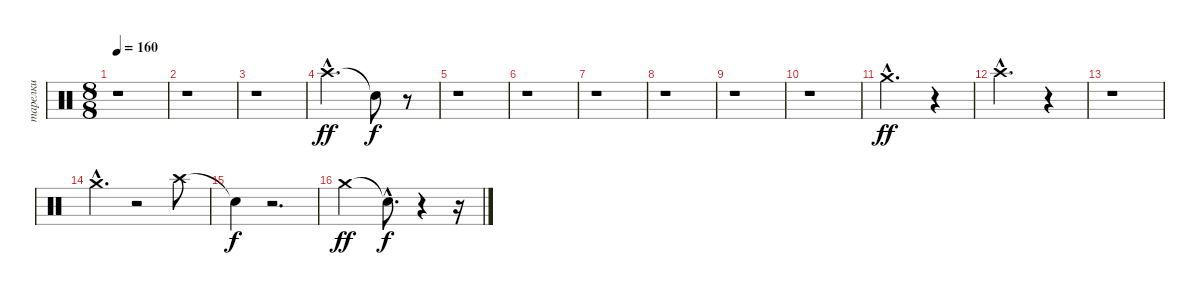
\track ("тарелки" "тарелки") {instrument percussion}
\staff {score}
\articulation defaults
\ts (8 8)
\tempo 160
\clef neutral
\ks c
r.1{dy f} |
r.1 |
r.1 |
"Crash high (hit)"{hac}.2{d dy ff} "Snare (hit)"{t}.8{dy f} r.8 |
r.1 |
r.1 |
r.1 |
r.1 |
r.1 |
r.1 |
"Crash medium (hit)"{hac}.2{d dy ff} r.4 |
"Crash high (hit)"{hac}.2{d} r.4 |
r.1 |
"Crash medium (hit)"{hac}.4{d} r.2 "Crash high (hit)".8 |
"Snare (hit)"{t}.4{dy f} r.2{d} |
"Crash medium (hit)".2{dy ff} "Snare (hit)"{hac t}.8{d dy f} r.4 r.16
